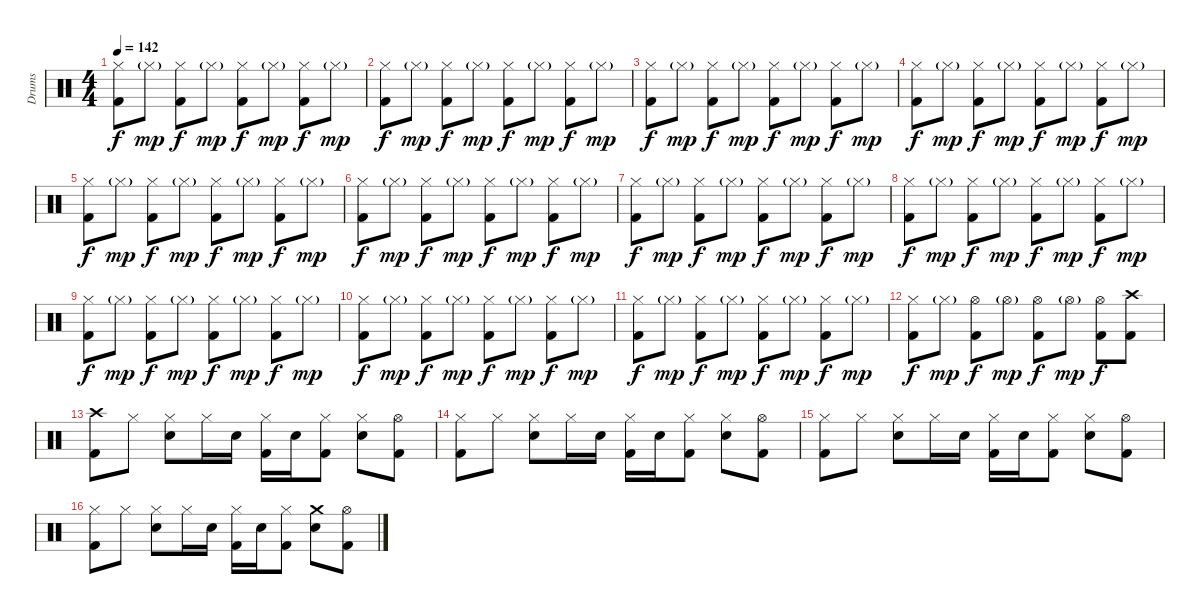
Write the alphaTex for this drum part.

\track ("Drums" "Drums") {instrument percussion}
\staff {score}
\articulation defaults
\ts (4 4)
\tempo 142
\clef neutral
\ks c
("Hi-Hat (closed)" "Kick (hit) 2").8{dy f} "Hi-Hat (closed)"{g}.8{dy mp} ("Hi-Hat (closed)" "Kick (hit) 2").8{dy f} "Hi-Hat (closed)"{g}.8{dy mp} ("Hi-Hat (closed)" "Kick (hit) 2").8{dy f} "Hi-Hat (closed)"{g}.8{dy mp} ("Hi-Hat (closed)" "Kick (hit) 2").8{dy f} "Hi-Hat (closed)"{g}.8{dy mp} |
("Hi-Hat (closed)" "Kick (hit) 2").8{dy f} "Hi-Hat (closed)"{g}.8{dy mp} ("Hi-Hat (closed)" "Kick (hit) 2").8{dy f} "Hi-Hat (closed)"{g}.8{dy mp} ("Hi-Hat (closed)" "Kick (hit) 2").8{dy f} "Hi-Hat (closed)"{g}.8{dy mp} ("Hi-Hat (closed)" "Kick (hit) 2").8{dy f} "Hi-Hat (closed)"{g}.8{dy mp} |
("Hi-Hat (closed)" "Kick (hit) 2").8{dy f} "Hi-Hat (closed)"{g}.8{dy mp} ("Hi-Hat (closed)" "Kick (hit) 2").8{dy f} "Hi-Hat (closed)"{g}.8{dy mp} ("Hi-Hat (closed)" "Kick (hit) 2").8{dy f} "Hi-Hat (closed)"{g}.8{dy mp} ("Hi-Hat (closed)" "Kick (hit) 2").8{dy f} "Hi-Hat (closed)"{g}.8{dy mp} |
("Hi-Hat (closed)" "Kick (hit) 2").8{dy f} "Hi-Hat (closed)"{g}.8{dy mp} ("Hi-Hat (closed)" "Kick (hit) 2").8{dy f} "Hi-Hat (closed)"{g}.8{dy mp} ("Hi-Hat (closed)" "Kick (hit) 2").8{dy f} "Hi-Hat (closed)"{g}.8{dy mp} ("Hi-Hat (closed)" "Kick (hit) 2").8{dy f} "Hi-Hat (closed)"{g}.8{dy mp} |
("Hi-Hat (closed)" "Kick (hit) 2").8{dy f} "Hi-Hat (closed)"{g}.8{dy mp} ("Hi-Hat (closed)" "Kick (hit) 2").8{dy f} "Hi-Hat (closed)"{g}.8{dy mp} ("Hi-Hat (closed)" "Kick (hit) 2").8{dy f} "Hi-Hat (closed)"{g}.8{dy mp} ("Hi-Hat (closed)" "Kick (hit) 2").8{dy f} "Hi-Hat (closed)"{g}.8{dy mp} |
("Hi-Hat (closed)" "Kick (hit) 2").8{dy f} "Hi-Hat (closed)"{g}.8{dy mp} ("Hi-Hat (closed)" "Kick (hit) 2").8{dy f} "Hi-Hat (closed)"{g}.8{dy mp} ("Hi-Hat (closed)" "Kick (hit) 2").8{dy f} "Hi-Hat (closed)"{g}.8{dy mp} ("Hi-Hat (closed)" "Kick (hit) 2").8{dy f} "Hi-Hat (closed)"{g}.8{dy mp} |
("Hi-Hat (closed)" "Kick (hit) 2").8{dy f} "Hi-Hat (closed)"{g}.8{dy mp} ("Hi-Hat (closed)" "Kick (hit) 2").8{dy f} "Hi-Hat (closed)"{g}.8{dy mp} ("Hi-Hat (closed)" "Kick (hit) 2").8{dy f} "Hi-Hat (closed)"{g}.8{dy mp} ("Hi-Hat (closed)" "Kick (hit) 2").8{dy f} "Hi-Hat (closed)"{g}.8{dy mp} |
("Hi-Hat (closed)" "Kick (hit) 2").8{dy f} "Hi-Hat (closed)"{g}.8{dy mp} ("Hi-Hat (closed)" "Kick (hit) 2").8{dy f} "Hi-Hat (closed)"{g}.8{dy mp} ("Hi-Hat (closed)" "Kick (hit) 2").8{dy f} "Hi-Hat (closed)"{g}.8{dy mp} ("Hi-Hat (closed)" "Kick (hit) 2").8{dy f} "Hi-Hat (closed)"{g}.8{dy mp} |
("Hi-Hat (closed)" "Kick (hit) 2").8{dy f} "Hi-Hat (closed)"{g}.8{dy mp} ("Hi-Hat (closed)" "Kick (hit) 2").8{dy f} "Hi-Hat (closed)"{g}.8{dy mp} ("Hi-Hat (closed)" "Kick (hit) 2").8{dy f} "Hi-Hat (closed)"{g}.8{dy mp} ("Hi-Hat (closed)" "Kick (hit) 2").8{dy f} "Hi-Hat (closed)"{g}.8{dy mp} |
("Hi-Hat (closed)" "Kick (hit) 2").8{dy f} "Hi-Hat (closed)"{g}.8{dy mp} ("Hi-Hat (closed)" "Kick (hit) 2").8{dy f} "Hi-Hat (closed)"{g}.8{dy mp} ("Hi-Hat (closed)" "Kick (hit) 2").8{dy f} "Hi-Hat (closed)"{g}.8{dy mp} ("Hi-Hat (closed)" "Kick (hit) 2").8{dy f} "Hi-Hat (closed)"{g}.8{dy mp} |
("Hi-Hat (closed)" "Kick (hit) 2").8{dy f} "Hi-Hat (closed)"{g}.8{dy mp} ("Hi-Hat (closed)" "Kick (hit) 2").8{dy f} "Hi-Hat (closed)"{g}.8{dy mp} ("Hi-Hat (closed)" "Kick (hit) 2").8{dy f} "Hi-Hat (closed)"{g}.8{dy mp} ("Hi-Hat (closed)" "Kick (hit) 2").8{dy f} "Hi-Hat (closed)"{g}.8{dy mp} |
("Hi-Hat (closed)" "Kick (hit) 2").8{dy f} "Hi-Hat (closed)"{g}.8{dy mp} ("Hi-Hat (open)" "Kick (hit) 2").8{dy f} "Hi-Hat (open)"{g}.8{dy mp} ("Hi-Hat (open)" "Kick (hit) 2").8{dy f} "Hi-Hat (open)"{g}.8{dy mp} ("Hi-Hat (open)" "Kick (hit) 2").8{dy f} ("Crash high (hit)" "Kick (hit) 2").8 |
("Crash high (hit)" "Kick (hit) 2").8 "Hi-Hat (closed)".8 ("Hi-Hat (closed)" "Electric Snare (hit)").8 "Hi-Hat (closed)".16 "Electric Snare (hit)".16 ("Hi-Hat (closed)" "Kick (hit) 2").16 "Electric Snare (hit)".16 ("Hi-Hat (closed)" "Kick (hit) 2").8 ("Hi-Hat (closed)" "Electric Snare (hit)").8 ("Hi-Hat (open)" "Kick (hit) 2").8 |
("Hi-Hat (closed)" "Kick (hit) 2").8 "Hi-Hat (closed)".8 ("Hi-Hat (closed)" "Electric Snare (hit)").8 "Hi-Hat (closed)".16 "Electric Snare (hit)".16 ("Hi-Hat (closed)" "Kick (hit) 2").16 "Electric Snare (hit)".16 ("Hi-Hat (closed)" "Kick (hit) 2").8 ("Hi-Hat (closed)" "Electric Snare (hit)").8 ("Hi-Hat (open)" "Kick (hit) 2").8 |
("Hi-Hat (closed)" "Kick (hit) 2").8 "Hi-Hat (closed)".8 ("Hi-Hat (closed)" "Electric Snare (hit)").8 "Hi-Hat (closed)".16 "Electric Snare (hit)".16 ("Hi-Hat (closed)" "Kick (hit) 2").16 "Electric Snare (hit)".16 ("Hi-Hat (closed)" "Kick (hit) 2").8 ("Hi-Hat (closed)" "Electric Snare (hit)").8 ("Hi-Hat (open)" "Kick (hit) 2").8 |
("Hi-Hat (closed)" "Kick (hit) 2").8 "Hi-Hat (closed)".8 ("Hi-Hat (closed)" "Electric Snare (hit)").8 "Hi-Hat (closed)".16 "Electric Snare (hit)".16 ("Hi-Hat (closed)" "Kick (hit) 2").16 "Electric Snare (hit)".16 ("Hi-Hat (closed)" "Kick (hit) 2").8 ("Crash medium (hit)" "Electric Snare (hit)").8 ("Hi-Hat (open)" "Kick (hit) 2").8
